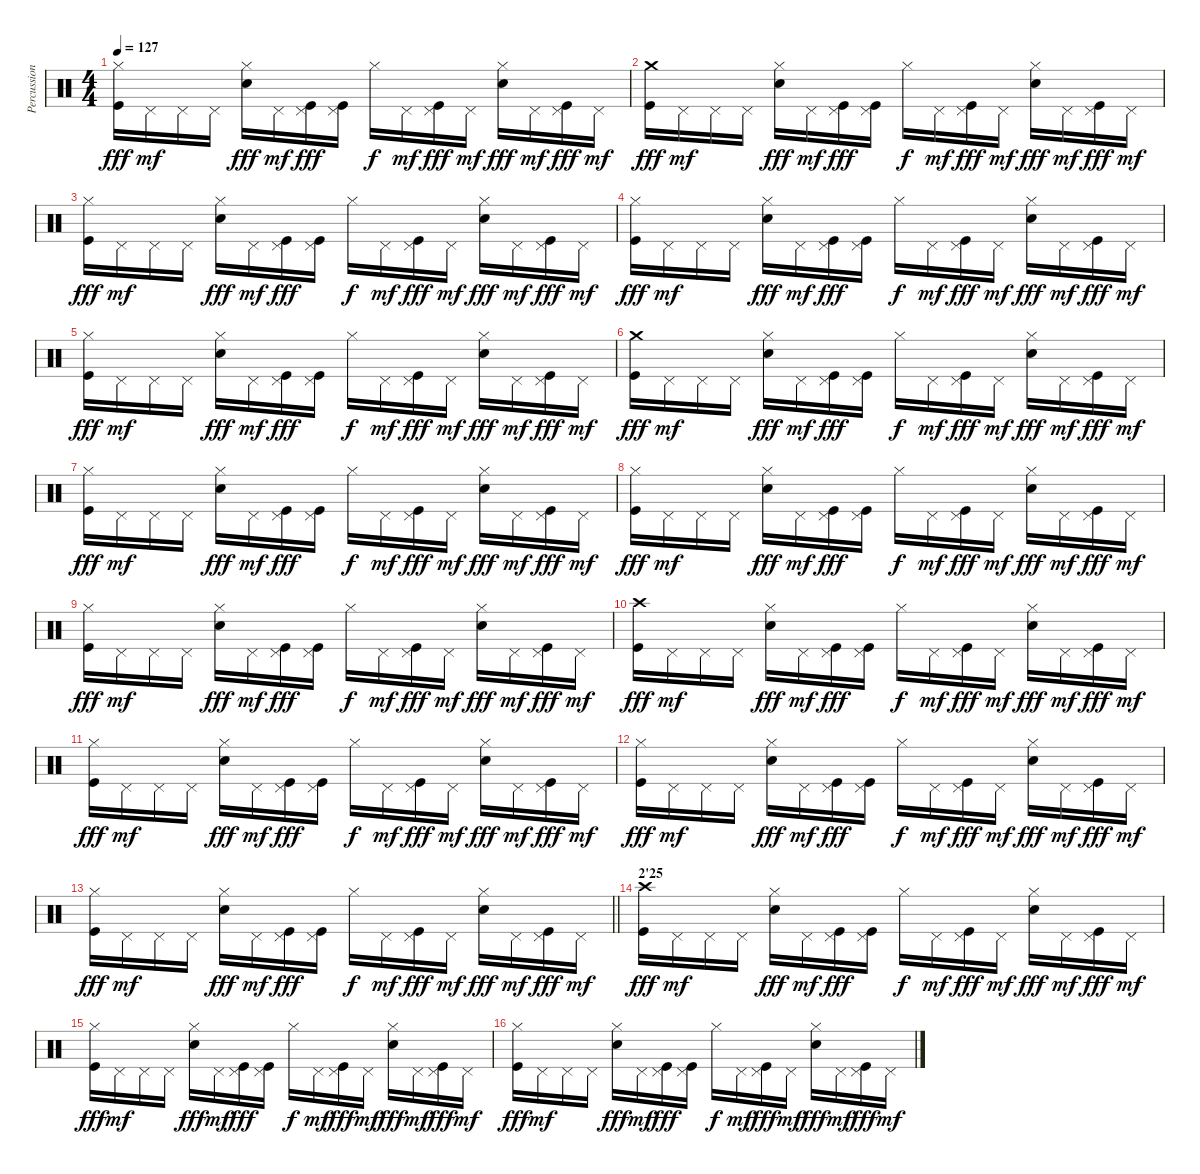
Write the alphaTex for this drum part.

\track ("Percussions" "Percussion") {instrument percussion}
\staff {score}
\articulation defaults
\ts (4 4)
\tempo 127
\clef neutral
\ks c
("Hi-Hat (closed)" "Kick (hit)").16{dy fff} "Pedal Hi-Hat (hit)".16{dy mf} "Pedal Hi-Hat (hit)".16 "Pedal Hi-Hat (hit)".16 ("Hi-Hat (closed)" "Electric Snare (hit)").16{dy fff} "Pedal Hi-Hat (hit)".16{dy mf} ("Pedal Hi-Hat (hit)" "Kick (hit)").16{dy fff} ("Pedal Hi-Hat (hit)" "Kick (hit)").16 "Hi-Hat (closed)".16{dy f} "Pedal Hi-Hat (hit)".16{dy mf} ("Pedal Hi-Hat (hit)" "Kick (hit)").16{dy fff} "Pedal Hi-Hat (hit)".16{dy mf} ("Hi-Hat (closed)" "Electric Snare (hit)").16{dy fff} "Pedal Hi-Hat (hit)".16{dy mf} ("Pedal Hi-Hat (hit)" "Kick (hit)").16{dy fff} "Pedal Hi-Hat (hit)".16{dy mf} |
("Crash medium (hit)" "Kick (hit)").16{dy fff} "Pedal Hi-Hat (hit)".16{dy mf} "Pedal Hi-Hat (hit)".16 "Pedal Hi-Hat (hit)".16 ("Hi-Hat (closed)" "Electric Snare (hit)").16{dy fff} "Pedal Hi-Hat (hit)".16{dy mf} ("Pedal Hi-Hat (hit)" "Kick (hit)").16{dy fff} ("Pedal Hi-Hat (hit)" "Kick (hit)").16 "Hi-Hat (closed)".16{dy f} "Pedal Hi-Hat (hit)".16{dy mf} ("Pedal Hi-Hat (hit)" "Kick (hit)").16{dy fff} "Pedal Hi-Hat (hit)".16{dy mf} ("Hi-Hat (closed)" "Electric Snare (hit)").16{dy fff} "Pedal Hi-Hat (hit)".16{dy mf} ("Pedal Hi-Hat (hit)" "Kick (hit)").16{dy fff} "Pedal Hi-Hat (hit)".16{dy mf} |
("Hi-Hat (closed)" "Kick (hit)").16{dy fff} "Pedal Hi-Hat (hit)".16{dy mf} "Pedal Hi-Hat (hit)".16 "Pedal Hi-Hat (hit)".16 ("Hi-Hat (closed)" "Electric Snare (hit)").16{dy fff} "Pedal Hi-Hat (hit)".16{dy mf} ("Pedal Hi-Hat (hit)" "Kick (hit)").16{dy fff} ("Pedal Hi-Hat (hit)" "Kick (hit)").16 "Hi-Hat (closed)".16{dy f} "Pedal Hi-Hat (hit)".16{dy mf} ("Pedal Hi-Hat (hit)" "Kick (hit)").16{dy fff} "Pedal Hi-Hat (hit)".16{dy mf} ("Hi-Hat (closed)" "Electric Snare (hit)").16{dy fff} "Pedal Hi-Hat (hit)".16{dy mf} ("Pedal Hi-Hat (hit)" "Kick (hit)").16{dy fff} "Pedal Hi-Hat (hit)".16{dy mf} |
("Hi-Hat (closed)" "Kick (hit)").16{dy fff} "Pedal Hi-Hat (hit)".16{dy mf} "Pedal Hi-Hat (hit)".16 "Pedal Hi-Hat (hit)".16 ("Hi-Hat (closed)" "Electric Snare (hit)").16{dy fff} "Pedal Hi-Hat (hit)".16{dy mf} ("Pedal Hi-Hat (hit)" "Kick (hit)").16{dy fff} ("Pedal Hi-Hat (hit)" "Kick (hit)").16 "Hi-Hat (closed)".16{dy f} "Pedal Hi-Hat (hit)".16{dy mf} ("Pedal Hi-Hat (hit)" "Kick (hit)").16{dy fff} "Pedal Hi-Hat (hit)".16{dy mf} ("Hi-Hat (closed)" "Electric Snare (hit)").16{dy fff} "Pedal Hi-Hat (hit)".16{dy mf} ("Pedal Hi-Hat (hit)" "Kick (hit)").16{dy fff} "Pedal Hi-Hat (hit)".16{dy mf} |
("Hi-Hat (closed)" "Kick (hit)").16{dy fff} "Pedal Hi-Hat (hit)".16{dy mf} "Pedal Hi-Hat (hit)".16 "Pedal Hi-Hat (hit)".16 ("Hi-Hat (closed)" "Electric Snare (hit)").16{dy fff} "Pedal Hi-Hat (hit)".16{dy mf} ("Pedal Hi-Hat (hit)" "Kick (hit)").16{dy fff} ("Pedal Hi-Hat (hit)" "Kick (hit)").16 "Hi-Hat (closed)".16{dy f} "Pedal Hi-Hat (hit)".16{dy mf} ("Pedal Hi-Hat (hit)" "Kick (hit)").16{dy fff} "Pedal Hi-Hat (hit)".16{dy mf} ("Hi-Hat (closed)" "Electric Snare (hit)").16{dy fff} "Pedal Hi-Hat (hit)".16{dy mf} ("Pedal Hi-Hat (hit)" "Kick (hit)").16{dy fff} "Pedal Hi-Hat (hit)".16{dy mf} |
("Crash medium (hit)" "Kick (hit)").16{dy fff} "Pedal Hi-Hat (hit)".16{dy mf} "Pedal Hi-Hat (hit)".16 "Pedal Hi-Hat (hit)".16 ("Hi-Hat (closed)" "Electric Snare (hit)").16{dy fff} "Pedal Hi-Hat (hit)".16{dy mf} ("Pedal Hi-Hat (hit)" "Kick (hit)").16{dy fff} ("Pedal Hi-Hat (hit)" "Kick (hit)").16 "Hi-Hat (closed)".16{dy f} "Pedal Hi-Hat (hit)".16{dy mf} ("Pedal Hi-Hat (hit)" "Kick (hit)").16{dy fff} "Pedal Hi-Hat (hit)".16{dy mf} ("Hi-Hat (closed)" "Electric Snare (hit)").16{dy fff} "Pedal Hi-Hat (hit)".16{dy mf} ("Pedal Hi-Hat (hit)" "Kick (hit)").16{dy fff} "Pedal Hi-Hat (hit)".16{dy mf} |
("Hi-Hat (closed)" "Kick (hit)").16{dy fff} "Pedal Hi-Hat (hit)".16{dy mf} "Pedal Hi-Hat (hit)".16 "Pedal Hi-Hat (hit)".16 ("Hi-Hat (closed)" "Electric Snare (hit)").16{dy fff} "Pedal Hi-Hat (hit)".16{dy mf} ("Pedal Hi-Hat (hit)" "Kick (hit)").16{dy fff} ("Pedal Hi-Hat (hit)" "Kick (hit)").16 "Hi-Hat (closed)".16{dy f} "Pedal Hi-Hat (hit)".16{dy mf} ("Pedal Hi-Hat (hit)" "Kick (hit)").16{dy fff} "Pedal Hi-Hat (hit)".16{dy mf} ("Hi-Hat (closed)" "Electric Snare (hit)").16{dy fff} "Pedal Hi-Hat (hit)".16{dy mf} ("Pedal Hi-Hat (hit)" "Kick (hit)").16{dy fff} "Pedal Hi-Hat (hit)".16{dy mf} |
("Hi-Hat (closed)" "Kick (hit)").16{dy fff} "Pedal Hi-Hat (hit)".16{dy mf} "Pedal Hi-Hat (hit)".16 "Pedal Hi-Hat (hit)".16 ("Hi-Hat (closed)" "Electric Snare (hit)").16{dy fff} "Pedal Hi-Hat (hit)".16{dy mf} ("Pedal Hi-Hat (hit)" "Kick (hit)").16{dy fff} ("Pedal Hi-Hat (hit)" "Kick (hit)").16 "Hi-Hat (closed)".16{dy f} "Pedal Hi-Hat (hit)".16{dy mf} ("Pedal Hi-Hat (hit)" "Kick (hit)").16{dy fff} "Pedal Hi-Hat (hit)".16{dy mf} ("Hi-Hat (closed)" "Electric Snare (hit)").16{dy fff} "Pedal Hi-Hat (hit)".16{dy mf} ("Pedal Hi-Hat (hit)" "Kick (hit)").16{dy fff} "Pedal Hi-Hat (hit)".16{dy mf} |
("Hi-Hat (closed)" "Kick (hit)").16{dy fff} "Pedal Hi-Hat (hit)".16{dy mf} "Pedal Hi-Hat (hit)".16 "Pedal Hi-Hat (hit)".16 ("Hi-Hat (closed)" "Electric Snare (hit)").16{dy fff} "Pedal Hi-Hat (hit)".16{dy mf} ("Pedal Hi-Hat (hit)" "Kick (hit)").16{dy fff} ("Pedal Hi-Hat (hit)" "Kick (hit)").16 "Hi-Hat (closed)".16{dy f} "Pedal Hi-Hat (hit)".16{dy mf} ("Pedal Hi-Hat (hit)" "Kick (hit)").16{dy fff} "Pedal Hi-Hat (hit)".16{dy mf} ("Hi-Hat (closed)" "Electric Snare (hit)").16{dy fff} "Pedal Hi-Hat (hit)".16{dy mf} ("Pedal Hi-Hat (hit)" "Kick (hit)").16{dy fff} "Pedal Hi-Hat (hit)".16{dy mf} |
("Crash high (hit)" "Kick (hit)").16{dy fff} "Pedal Hi-Hat (hit)".16{dy mf} "Pedal Hi-Hat (hit)".16 "Pedal Hi-Hat (hit)".16 ("Hi-Hat (closed)" "Electric Snare (hit)").16{dy fff} "Pedal Hi-Hat (hit)".16{dy mf} ("Pedal Hi-Hat (hit)" "Kick (hit)").16{dy fff} ("Pedal Hi-Hat (hit)" "Kick (hit)").16 "Hi-Hat (closed)".16{dy f} "Pedal Hi-Hat (hit)".16{dy mf} ("Pedal Hi-Hat (hit)" "Kick (hit)").16{dy fff} "Pedal Hi-Hat (hit)".16{dy mf} ("Hi-Hat (closed)" "Electric Snare (hit)").16{dy fff} "Pedal Hi-Hat (hit)".16{dy mf} ("Pedal Hi-Hat (hit)" "Kick (hit)").16{dy fff} "Pedal Hi-Hat (hit)".16{dy mf} |
("Hi-Hat (closed)" "Kick (hit)").16{dy fff} "Pedal Hi-Hat (hit)".16{dy mf} "Pedal Hi-Hat (hit)".16 "Pedal Hi-Hat (hit)".16 ("Hi-Hat (closed)" "Electric Snare (hit)").16{dy fff} "Pedal Hi-Hat (hit)".16{dy mf} ("Pedal Hi-Hat (hit)" "Kick (hit)").16{dy fff} ("Pedal Hi-Hat (hit)" "Kick (hit)").16 "Hi-Hat (closed)".16{dy f} "Pedal Hi-Hat (hit)".16{dy mf} ("Pedal Hi-Hat (hit)" "Kick (hit)").16{dy fff} "Pedal Hi-Hat (hit)".16{dy mf} ("Hi-Hat (closed)" "Electric Snare (hit)").16{dy fff} "Pedal Hi-Hat (hit)".16{dy mf} ("Pedal Hi-Hat (hit)" "Kick (hit)").16{dy fff} "Pedal Hi-Hat (hit)".16{dy mf} |
("Hi-Hat (closed)" "Kick (hit)").16{dy fff} "Pedal Hi-Hat (hit)".16{dy mf} "Pedal Hi-Hat (hit)".16 "Pedal Hi-Hat (hit)".16 ("Hi-Hat (closed)" "Electric Snare (hit)").16{dy fff} "Pedal Hi-Hat (hit)".16{dy mf} ("Pedal Hi-Hat (hit)" "Kick (hit)").16{dy fff} ("Pedal Hi-Hat (hit)" "Kick (hit)").16 "Hi-Hat (closed)".16{dy f} "Pedal Hi-Hat (hit)".16{dy mf} ("Pedal Hi-Hat (hit)" "Kick (hit)").16{dy fff} "Pedal Hi-Hat (hit)".16{dy mf} ("Hi-Hat (closed)" "Electric Snare (hit)").16{dy fff} "Pedal Hi-Hat (hit)".16{dy mf} ("Pedal Hi-Hat (hit)" "Kick (hit)").16{dy fff} "Pedal Hi-Hat (hit)".16{dy mf} |
\barLineRight lightlight
("Hi-Hat (closed)" "Kick (hit)").16{dy fff} "Pedal Hi-Hat (hit)".16{dy mf} "Pedal Hi-Hat (hit)".16 "Pedal Hi-Hat (hit)".16 ("Hi-Hat (closed)" "Electric Snare (hit)").16{dy fff} "Pedal Hi-Hat (hit)".16{dy mf} ("Pedal Hi-Hat (hit)" "Kick (hit)").16{dy fff} ("Pedal Hi-Hat (hit)" "Kick (hit)").16 "Hi-Hat (closed)".16{dy f} "Pedal Hi-Hat (hit)".16{dy mf} ("Pedal Hi-Hat (hit)" "Kick (hit)").16{dy fff} "Pedal Hi-Hat (hit)".16{dy mf} ("Hi-Hat (closed)" "Electric Snare (hit)").16{dy fff} "Pedal Hi-Hat (hit)".16{dy mf} ("Pedal Hi-Hat (hit)" "Kick (hit)").16{dy fff} "Pedal Hi-Hat (hit)".16{dy mf} |
\section ("" "2'25")
("Crash high (hit)" "Kick (hit)").16{dy fff} "Pedal Hi-Hat (hit)".16{dy mf} "Pedal Hi-Hat (hit)".16 "Pedal Hi-Hat (hit)".16 ("Hi-Hat (closed)" "Electric Snare (hit)").16{dy fff} "Pedal Hi-Hat (hit)".16{dy mf} ("Pedal Hi-Hat (hit)" "Kick (hit)").16{dy fff} ("Pedal Hi-Hat (hit)" "Kick (hit)").16 "Hi-Hat (closed)".16{dy f} "Pedal Hi-Hat (hit)".16{dy mf} ("Pedal Hi-Hat (hit)" "Kick (hit)").16{dy fff} "Pedal Hi-Hat (hit)".16{dy mf} ("Hi-Hat (closed)" "Electric Snare (hit)").16{dy fff} "Pedal Hi-Hat (hit)".16{dy mf} ("Pedal Hi-Hat (hit)" "Kick (hit)").16{dy fff} "Pedal Hi-Hat (hit)".16{dy mf} |
("Hi-Hat (closed)" "Kick (hit)").16{dy fff} "Pedal Hi-Hat (hit)".16{dy mf} "Pedal Hi-Hat (hit)".16 "Pedal Hi-Hat (hit)".16 ("Hi-Hat (closed)" "Electric Snare (hit)").16{dy fff} "Pedal Hi-Hat (hit)".16{dy mf} ("Pedal Hi-Hat (hit)" "Kick (hit)").16{dy fff} ("Pedal Hi-Hat (hit)" "Kick (hit)").16 "Hi-Hat (closed)".16{dy f} "Pedal Hi-Hat (hit)".16{dy mf} ("Pedal Hi-Hat (hit)" "Kick (hit)").16{dy fff} "Pedal Hi-Hat (hit)".16{dy mf} ("Hi-Hat (closed)" "Electric Snare (hit)").16{dy fff} "Pedal Hi-Hat (hit)".16{dy mf} ("Pedal Hi-Hat (hit)" "Kick (hit)").16{dy fff} "Pedal Hi-Hat (hit)".16{dy mf} |
("Hi-Hat (closed)" "Kick (hit)").16{dy fff} "Pedal Hi-Hat (hit)".16{dy mf} "Pedal Hi-Hat (hit)".16 "Pedal Hi-Hat (hit)".16 ("Hi-Hat (closed)" "Electric Snare (hit)").16{dy fff} "Pedal Hi-Hat (hit)".16{dy mf} ("Pedal Hi-Hat (hit)" "Kick (hit)").16{dy fff} ("Pedal Hi-Hat (hit)" "Kick (hit)").16 "Hi-Hat (closed)".16{dy f} "Pedal Hi-Hat (hit)".16{dy mf} ("Pedal Hi-Hat (hit)" "Kick (hit)").16{dy fff} "Pedal Hi-Hat (hit)".16{dy mf} ("Hi-Hat (closed)" "Electric Snare (hit)").16{dy fff} "Pedal Hi-Hat (hit)".16{dy mf} ("Pedal Hi-Hat (hit)" "Kick (hit)").16{dy fff} "Pedal Hi-Hat (hit)".16{dy mf}
